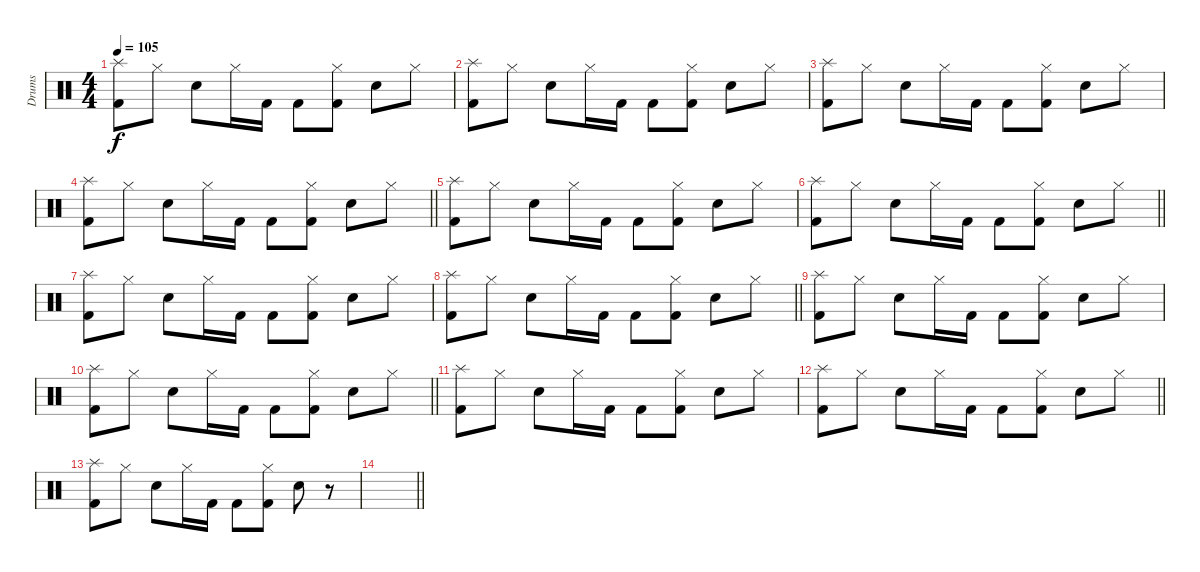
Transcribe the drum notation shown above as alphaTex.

\track ("Drums" "Drums") {instrument percussion}
\staff {score}
\articulation defaults
\ts (4 4)
\tempo 105
\clef neutral
\ks c
("Splash (hit)" "Kick (hit) 2").8{dy f} "Hi-Hat (closed)".8 "Electric Snare (hit)".8 "Hi-Hat (closed)".16 "Kick (hit) 2".16 "Kick (hit) 2".8 ("Hi-Hat (closed)" "Kick (hit) 2").8 "Electric Snare (hit)".8 "Hi-Hat (closed)".8 |
("Splash (hit)" "Kick (hit) 2").8 "Hi-Hat (closed)".8 "Electric Snare (hit)".8 "Hi-Hat (closed)".16 "Kick (hit) 2".16 "Kick (hit) 2".8 ("Hi-Hat (closed)" "Kick (hit) 2").8 "Electric Snare (hit)".8 "Hi-Hat (closed)".8 |
("Splash (hit)" "Kick (hit) 2").8 "Hi-Hat (closed)".8 "Electric Snare (hit)".8 "Hi-Hat (closed)".16 "Kick (hit) 2".16 "Kick (hit) 2".8 ("Hi-Hat (closed)" "Kick (hit) 2").8 "Electric Snare (hit)".8 "Hi-Hat (closed)".8 |
\barLineRight lightlight
("Splash (hit)" "Kick (hit) 2").8 "Hi-Hat (closed)".8 "Electric Snare (hit)".8 "Hi-Hat (closed)".16 "Kick (hit) 2".16 "Kick (hit) 2".8 ("Hi-Hat (closed)" "Kick (hit) 2").8 "Electric Snare (hit)".8 "Hi-Hat (closed)".8 |
("Splash (hit)" "Kick (hit) 2").8 "Hi-Hat (closed)".8 "Electric Snare (hit)".8 "Hi-Hat (closed)".16 "Kick (hit) 2".16 "Kick (hit) 2".8 ("Hi-Hat (closed)" "Kick (hit) 2").8 "Electric Snare (hit)".8 "Hi-Hat (closed)".8 |
\barLineRight lightlight
("Splash (hit)" "Kick (hit) 2").8 "Hi-Hat (closed)".8 "Electric Snare (hit)".8 "Hi-Hat (closed)".16 "Kick (hit) 2".16 "Kick (hit) 2".8 ("Hi-Hat (closed)" "Kick (hit) 2").8 "Electric Snare (hit)".8 "Hi-Hat (closed)".8 |
("Splash (hit)" "Kick (hit) 2").8 "Hi-Hat (closed)".8 "Electric Snare (hit)".8 "Hi-Hat (closed)".16 "Kick (hit) 2".16 "Kick (hit) 2".8 ("Hi-Hat (closed)" "Kick (hit) 2").8 "Electric Snare (hit)".8 "Hi-Hat (closed)".8 |
\barLineRight lightlight
("Splash (hit)" "Kick (hit) 2").8 "Hi-Hat (closed)".8 "Electric Snare (hit)".8 "Hi-Hat (closed)".16 "Kick (hit) 2".16 "Kick (hit) 2".8 ("Hi-Hat (closed)" "Kick (hit) 2").8 "Electric Snare (hit)".8 "Hi-Hat (closed)".8 |
("Splash (hit)" "Kick (hit) 2").8 "Hi-Hat (closed)".8 "Electric Snare (hit)".8 "Hi-Hat (closed)".16 "Kick (hit) 2".16 "Kick (hit) 2".8 ("Hi-Hat (closed)" "Kick (hit) 2").8 "Electric Snare (hit)".8 "Hi-Hat (closed)".8 |
\barLineRight lightlight
("Splash (hit)" "Kick (hit) 2").8 "Hi-Hat (closed)".8 "Electric Snare (hit)".8 "Hi-Hat (closed)".16 "Kick (hit) 2".16 "Kick (hit) 2".8 ("Hi-Hat (closed)" "Kick (hit) 2").8 "Electric Snare (hit)".8 "Hi-Hat (closed)".8 |
("Splash (hit)" "Kick (hit) 2").8 "Hi-Hat (closed)".8 "Electric Snare (hit)".8 "Hi-Hat (closed)".16 "Kick (hit) 2".16 "Kick (hit) 2".8 ("Hi-Hat (closed)" "Kick (hit) 2").8 "Electric Snare (hit)".8 "Hi-Hat (closed)".8 |
\barLineRight lightlight
("Splash (hit)" "Kick (hit) 2").8 "Hi-Hat (closed)".8 "Electric Snare (hit)".8 "Hi-Hat (closed)".16 "Kick (hit) 2".16 "Kick (hit) 2".8 ("Hi-Hat (closed)" "Kick (hit) 2").8 "Electric Snare (hit)".8 "Hi-Hat (closed)".8 |
("Splash (hit)" "Kick (hit) 2").8 "Hi-Hat (closed)".8 "Electric Snare (hit)".8 "Hi-Hat (closed)".16 "Kick (hit) 2".16 "Kick (hit) 2".8 ("Hi-Hat (closed)" "Kick (hit) 2").8 "Electric Snare (hit)".8 r.8 |
\barLineRight lightlight
